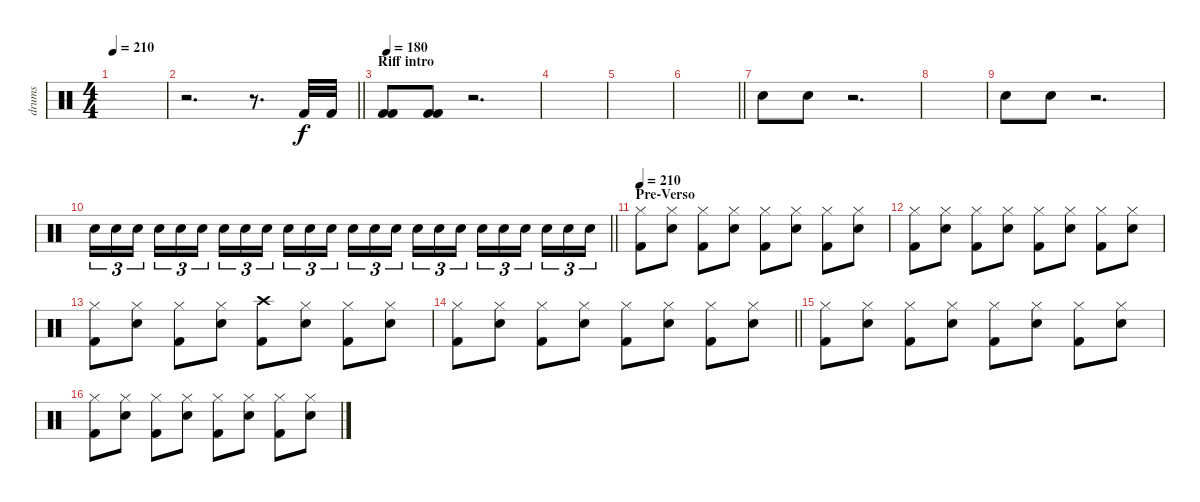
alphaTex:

\track ("drums" "drums") {instrument percussion}
\staff {score}
\articulation defaults
\ts (4 4)
\tempo 210
\clef neutral
\ks c
|
\barLineRight lightlight
r.2{d} r.8{d} "Kick (hit) 2".32 "Kick (hit) 2".32 |
\section ("" "Riff intro")
\tempo 180
("Kick (hit) 2" "Kick (hit) 2").8 ("Kick (hit) 2" "Kick (hit) 2").8 r.2{d} |
|
|
\barLineRight lightlight
|
"Electric Snare (hit)".8 "Electric Snare (hit)".8 r.2{d} |
|
"Electric Snare (hit)".8 "Electric Snare (hit)".8 r.2{d volume 7} |
\barLineRight lightlight "Electric Snare (hit)".16{tu (3 2) volume 16} "Electric Snare (hit)".16{tu (3 2)} "Electric Snare (hit)".16{tu (3 2) beam splitsecondary} "Electric Snare (hit)".16{tu (3 2)} "Electric Snare (hit)".16{tu (3 2)} "Electric Snare (hit)".16{tu (3 2)} "Electric Snare (hit)".16{tu (3 2)} "Electric Snare (hit)".16{tu (3 2)} "Electric Snare (hit)".16{tu (3 2) beam splitsecondary} "Electric Snare (hit)".16{tu (3 2)} "Electric Snare (hit)".16{tu (3 2)} "Electric Snare (hit)".16{tu (3 2)} "Electric Snare (hit)".16{tu (3 2)} "Electric Snare (hit)".16{tu (3 2)} "Electric Snare (hit)".16{tu (3 2) beam splitsecondary} "Electric Snare (hit)".16{tu (3 2)} "Electric Snare (hit)".16{tu (3 2)} "Electric Snare (hit)".16{tu (3 2)} "Electric Snare (hit)".16{tu (3 2)} "Electric Snare (hit)".16{tu (3 2)} "Electric Snare (hit)".16{tu (3 2) beam splitsecondary} "Electric Snare (hit)".16{tu (3 2)} "Electric Snare (hit)".16{tu (3 2)} "Electric Snare (hit)".16{tu (3 2)}
|
\section ("" "Pre-Verso")
\tempo 210
("Hi-Hat (closed)" "Kick (hit) 2").8 ("Hi-Hat (closed)" "Electric Snare (hit)").8 ("Hi-Hat (closed)" "Kick (hit) 2").8 ("Hi-Hat (closed)" "Electric Snare (hit)").8 ("Hi-Hat (closed)" "Kick (hit) 2").8 ("Hi-Hat (closed)" "Electric Snare (hit)").8 ("Hi-Hat (closed)" "Kick (hit) 2").8 ("Hi-Hat (closed)" "Electric Snare (hit)").8 |
("Hi-Hat (closed)" "Kick (hit) 2").8 ("Hi-Hat (closed)" "Electric Snare (hit)").8 ("Hi-Hat (closed)" "Kick (hit) 2").8 ("Hi-Hat (closed)" "Electric Snare (hit)").8 ("Hi-Hat (closed)" "Kick (hit) 2").8 ("Hi-Hat (closed)" "Electric Snare (hit)").8 ("Hi-Hat (closed)" "Kick (hit) 2").8 ("Hi-Hat (closed)" "Electric Snare (hit)").8 |
("Hi-Hat (closed)" "Kick (hit) 2").8 ("Hi-Hat (closed)" "Electric Snare (hit)").8 ("Hi-Hat (closed)" "Kick (hit) 2").8 ("Hi-Hat (closed)" "Electric Snare (hit)").8 ("Crash high (hit)" "Kick (hit) 2").8 ("Hi-Hat (closed)" "Electric Snare (hit)").8 ("Hi-Hat (closed)" "Kick (hit) 2").8 ("Hi-Hat (closed)" "Electric Snare (hit)").8 |
\barLineRight lightlight
("Hi-Hat (closed)" "Kick (hit) 2").8 ("Hi-Hat (closed)" "Electric Snare (hit)").8 ("Hi-Hat (closed)" "Kick (hit) 2").8 ("Hi-Hat (closed)" "Electric Snare (hit)").8 ("Hi-Hat (closed)" "Kick (hit) 2").8 ("Hi-Hat (closed)" "Electric Snare (hit)").8 ("Hi-Hat (closed)" "Kick (hit) 2").8 ("Hi-Hat (closed)" "Electric Snare (hit)").8 |
("Hi-Hat (closed)" "Kick (hit) 2").8 ("Hi-Hat (closed)" "Electric Snare (hit)").8 ("Hi-Hat (closed)" "Kick (hit) 2").8 ("Hi-Hat (closed)" "Electric Snare (hit)").8 ("Hi-Hat (closed)" "Kick (hit) 2").8 ("Hi-Hat (closed)" "Electric Snare (hit)").8 ("Hi-Hat (closed)" "Kick (hit) 2").8 ("Hi-Hat (closed)" "Electric Snare (hit)").8 |
("Hi-Hat (closed)" "Kick (hit) 2").8 ("Hi-Hat (closed)" "Electric Snare (hit)").8 ("Hi-Hat (closed)" "Kick (hit) 2").8 ("Hi-Hat (closed)" "Electric Snare (hit)").8 ("Hi-Hat (closed)" "Kick (hit) 2").8 ("Hi-Hat (closed)" "Electric Snare (hit)").8 ("Hi-Hat (closed)" "Kick (hit) 2").8 ("Hi-Hat (closed)" "Electric Snare (hit)").8
